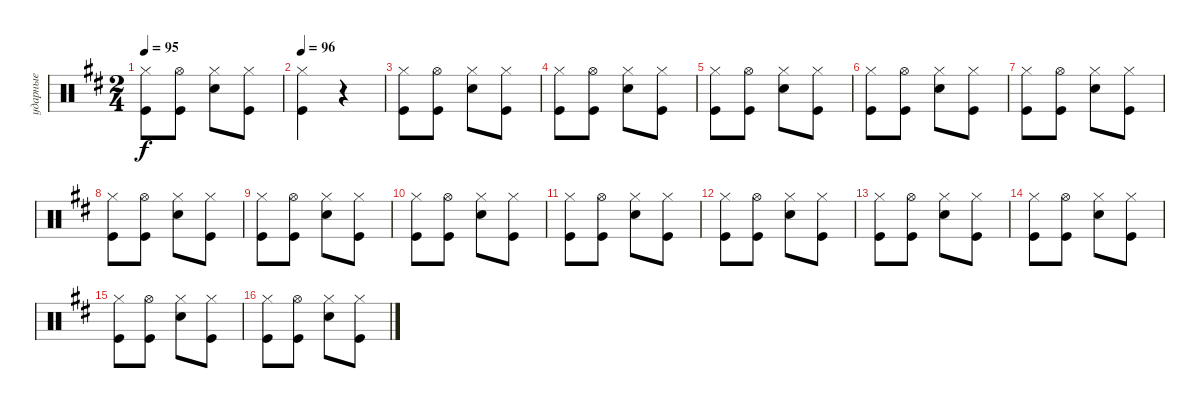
\track ("ударные" "ударные") {instrument percussion}
\staff {score}
\articulation defaults
\ts (2 4)
\tempo 95
\clef neutral
\ks bminor
("Kick (hit)" "Hi-Hat (closed)").8{dy f} ("Kick (hit)" "Hi-Hat (open)").8 ("Snare (hit) 2" "Hi-Hat (closed)").8 ("Hi-Hat (closed)" "Kick (hit)").8 |
\tempo 96
("Kick (hit)" "Hi-Hat (closed)").4 r.4 |
("Kick (hit)" "Hi-Hat (closed)").8 ("Kick (hit)" "Hi-Hat (open)").8 ("Snare (hit) 2" "Hi-Hat (closed)").8 ("Hi-Hat (closed)" "Kick (hit)").8 |
("Kick (hit)" "Hi-Hat (closed)").8 ("Kick (hit)" "Hi-Hat (open)").8 ("Snare (hit) 2" "Hi-Hat (closed)").8 ("Hi-Hat (closed)" "Kick (hit)").8 |
("Kick (hit)" "Hi-Hat (closed)").8 ("Kick (hit)" "Hi-Hat (open)").8 ("Snare (hit) 2" "Hi-Hat (closed)").8 ("Hi-Hat (closed)" "Kick (hit)").8 |
("Kick (hit)" "Hi-Hat (closed)").8 ("Kick (hit)" "Hi-Hat (open)").8 ("Snare (hit) 2" "Hi-Hat (closed)").8 ("Hi-Hat (closed)" "Kick (hit)").8 |
("Kick (hit)" "Hi-Hat (closed)").8 ("Kick (hit)" "Hi-Hat (open)").8 ("Snare (hit) 2" "Hi-Hat (closed)").8 ("Hi-Hat (closed)" "Kick (hit)").8 |
("Kick (hit)" "Hi-Hat (closed)").8 ("Kick (hit)" "Hi-Hat (open)").8 ("Snare (hit) 2" "Hi-Hat (closed)").8 ("Hi-Hat (closed)" "Kick (hit)").8 |
("Kick (hit)" "Hi-Hat (closed)").8 ("Kick (hit)" "Hi-Hat (open)").8 ("Snare (hit) 2" "Hi-Hat (closed)").8 ("Hi-Hat (closed)" "Kick (hit)").8 |
("Kick (hit)" "Hi-Hat (closed)").8 ("Kick (hit)" "Hi-Hat (open)").8 ("Snare (hit) 2" "Hi-Hat (closed)").8 ("Hi-Hat (closed)" "Kick (hit)").8 |
("Kick (hit)" "Hi-Hat (closed)").8 ("Kick (hit)" "Hi-Hat (open)").8 ("Snare (hit) 2" "Hi-Hat (closed)").8 ("Hi-Hat (closed)" "Kick (hit)").8 |
("Kick (hit)" "Hi-Hat (closed)").8 ("Kick (hit)" "Hi-Hat (open)").8 ("Snare (hit) 2" "Hi-Hat (closed)").8 ("Hi-Hat (closed)" "Kick (hit)").8 |
("Kick (hit)" "Hi-Hat (closed)").8 ("Kick (hit)" "Hi-Hat (open)").8 ("Snare (hit) 2" "Hi-Hat (closed)").8 ("Hi-Hat (closed)" "Kick (hit)").8 |
("Kick (hit)" "Hi-Hat (closed)").8 ("Kick (hit)" "Hi-Hat (open)").8 ("Snare (hit) 2" "Hi-Hat (closed)").8 ("Hi-Hat (closed)" "Kick (hit)").8 |
("Kick (hit)" "Hi-Hat (closed)").8 ("Kick (hit)" "Hi-Hat (open)").8 ("Snare (hit) 2" "Hi-Hat (closed)").8 ("Hi-Hat (closed)" "Kick (hit)").8 |
("Kick (hit)" "Hi-Hat (closed)").8 ("Kick (hit)" "Hi-Hat (open)").8 ("Snare (hit) 2" "Hi-Hat (closed)").8 ("Hi-Hat (closed)" "Kick (hit)").8
